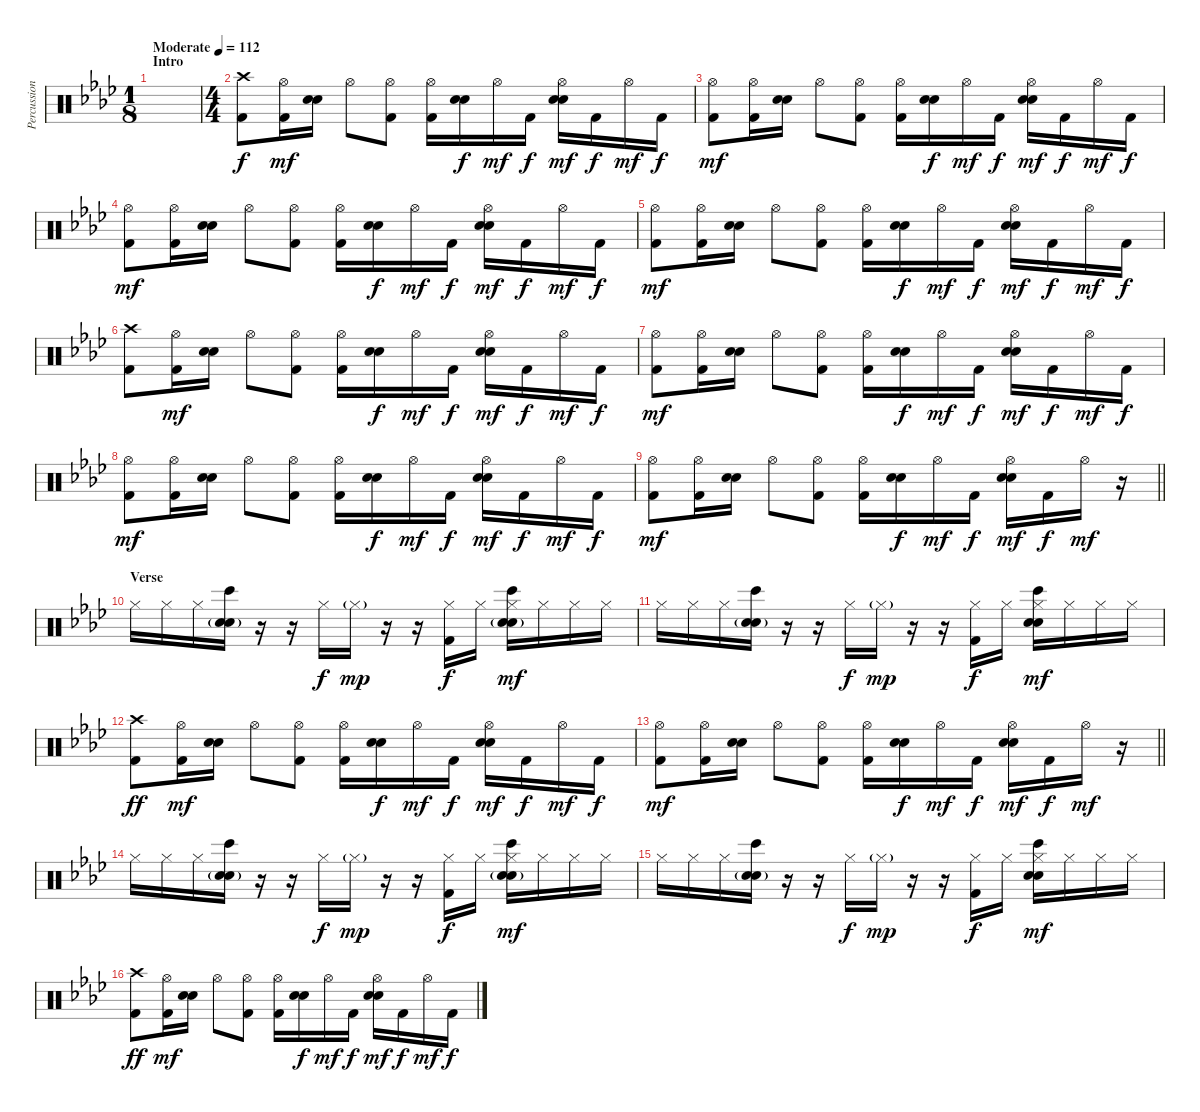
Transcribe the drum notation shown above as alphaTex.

\track ("Percussion" "Percussion") {instrument percussion}
\staff {score}
\articulation defaults
\ts (1 8)
\section ("" "Intro")
\tempo (112 "Moderate")
\clef neutral
\ks ab
|
\ts (4 4)
("Crash high (hit)" "Kick (hit) 2").8 ("Hi-Hat (open)" "Kick (hit) 2").16{dy mf} ("Electric Snare (hit)" "Snare (hit) 2").16 "Hi-Hat (open)".8 ("Hi-Hat (open)" "Kick (hit) 2").8 ("Hi-Hat (open)" "Kick (hit) 2").16 ("Electric Snare (hit)" "Snare (hit) 2").16{dy f} "Hi-Hat (open)".16{dy mf} "Kick (hit) 2".16{dy f} ("Hi-Hat (open)" "Electric Snare (hit)" "Snare (hit) 2").16{dy mf} "Kick (hit) 2".16{dy f} "Hi-Hat (open)".16{dy mf} "Kick (hit) 2".16{dy f} |
("Hi-Hat (open)" "Kick (hit) 2").8{dy mf} ("Hi-Hat (open)" "Kick (hit) 2").16 ("Electric Snare (hit)" "Snare (hit) 2").16 "Hi-Hat (open)".8 ("Hi-Hat (open)" "Kick (hit) 2").8 ("Hi-Hat (open)" "Kick (hit) 2").16 ("Electric Snare (hit)" "Snare (hit) 2").16{dy f} "Hi-Hat (open)".16{dy mf} "Kick (hit) 2".16{dy f} ("Hi-Hat (open)" "Electric Snare (hit)" "Snare (hit) 2").16{dy mf} "Kick (hit) 2".16{dy f} "Hi-Hat (open)".16{dy mf} "Kick (hit) 2".16{dy f} |
("Hi-Hat (open)" "Kick (hit) 2").8{dy mf} ("Hi-Hat (open)" "Kick (hit) 2").16 ("Electric Snare (hit)" "Snare (hit) 2").16 "Hi-Hat (open)".8 ("Hi-Hat (open)" "Kick (hit) 2").8 ("Hi-Hat (open)" "Kick (hit) 2").16 ("Electric Snare (hit)" "Snare (hit) 2").16{dy f} "Hi-Hat (open)".16{dy mf} "Kick (hit) 2".16{dy f} ("Hi-Hat (open)" "Electric Snare (hit)" "Snare (hit) 2").16{dy mf} "Kick (hit) 2".16{dy f} "Hi-Hat (open)".16{dy mf} "Kick (hit) 2".16{dy f} |
("Hi-Hat (open)" "Kick (hit) 2").8{dy mf} ("Hi-Hat (open)" "Kick (hit) 2").16 ("Electric Snare (hit)" "Snare (hit) 2").16 "Hi-Hat (open)".8 ("Hi-Hat (open)" "Kick (hit) 2").8 ("Hi-Hat (open)" "Kick (hit) 2").16 ("Electric Snare (hit)" "Snare (hit) 2").16{dy f} "Hi-Hat (open)".16{dy mf} "Kick (hit) 2".16{dy f} ("Hi-Hat (open)" "Electric Snare (hit)" "Snare (hit) 2").16{dy mf} "Kick (hit) 2".16{dy f} "Hi-Hat (open)".16{dy mf} "Kick (hit) 2".16{dy f} |
("Crash high (hit)" "Kick (hit) 2").8 ("Hi-Hat (open)" "Kick (hit) 2").16{dy mf} ("Electric Snare (hit)" "Snare (hit) 2").16 "Hi-Hat (open)".8 ("Hi-Hat (open)" "Kick (hit) 2").8 ("Hi-Hat (open)" "Kick (hit) 2").16 ("Electric Snare (hit)" "Snare (hit) 2").16{dy f} "Hi-Hat (open)".16{dy mf} "Kick (hit) 2".16{dy f} ("Hi-Hat (open)" "Electric Snare (hit)" "Snare (hit) 2").16{dy mf} "Kick (hit) 2".16{dy f} "Hi-Hat (open)".16{dy mf} "Kick (hit) 2".16{dy f} |
("Hi-Hat (open)" "Kick (hit) 2").8{dy mf} ("Hi-Hat (open)" "Kick (hit) 2").16 ("Electric Snare (hit)" "Snare (hit) 2").16 "Hi-Hat (open)".8 ("Hi-Hat (open)" "Kick (hit) 2").8 ("Hi-Hat (open)" "Kick (hit) 2").16 ("Electric Snare (hit)" "Snare (hit) 2").16{dy f} "Hi-Hat (open)".16{dy mf} "Kick (hit) 2".16{dy f} ("Hi-Hat (open)" "Electric Snare (hit)" "Snare (hit) 2").16{dy mf} "Kick (hit) 2".16{dy f} "Hi-Hat (open)".16{dy mf} "Kick (hit) 2".16{dy f} |
("Hi-Hat (open)" "Kick (hit) 2").8{dy mf} ("Hi-Hat (open)" "Kick (hit) 2").16 ("Electric Snare (hit)" "Snare (hit) 2").16 "Hi-Hat (open)".8 ("Hi-Hat (open)" "Kick (hit) 2").8 ("Hi-Hat (open)" "Kick (hit) 2").16 ("Electric Snare (hit)" "Snare (hit) 2").16{dy f} "Hi-Hat (open)".16{dy mf} "Kick (hit) 2".16{dy f} ("Hi-Hat (open)" "Electric Snare (hit)" "Snare (hit) 2").16{dy mf} "Kick (hit) 2".16{dy f} "Hi-Hat (open)".16{dy mf} "Kick (hit) 2".16{dy f} |
\barLineRight lightlight
("Hi-Hat (open)" "Kick (hit) 2").8{dy mf} ("Hi-Hat (open)" "Kick (hit) 2").16 ("Electric Snare (hit)" "Snare (hit) 2").16 "Hi-Hat (open)".8 ("Hi-Hat (open)" "Kick (hit) 2").8 ("Hi-Hat (open)" "Kick (hit) 2").16 ("Electric Snare (hit)" "Snare (hit) 2").16{dy f} "Hi-Hat (open)".16{dy mf} "Kick (hit) 2".16{dy f} ("Hi-Hat (open)" "Electric Snare (hit)" "Snare (hit) 2").16{dy mf} "Kick (hit) 2".16{dy f} "Hi-Hat (open)".16{dy mf} r.16 |
\section ("" "Verse")
"Hi-Hat (closed)".16 "Hi-Hat (closed)".16 "Hi-Hat (closed)".16 ("Bongo High (hit)" "Electric Snare (hit)"{g} "Snare (hit) 2").16 r.16 r.16 "Hi-Hat (closed)".16{dy f} "Hi-Hat (closed)"{g}.16{dy mp} r.16 r.16 ("Hi-Hat (closed)" "Kick (hit) 2").16{dy f} "Hi-Hat (closed)".16 ("Hi-Hat (closed)" "Bongo High (hit)" "Electric Snare (hit)"{g} "Snare (hit) 2").16{dy mf} "Hi-Hat (closed)".16 "Hi-Hat (closed)".16 "Hi-Hat (closed)".16 |
"Hi-Hat (closed)".16 "Hi-Hat (closed)".16 "Hi-Hat (closed)".16 ("Bongo High (hit)" "Electric Snare (hit)"{g} "Snare (hit) 2").16 r.16 r.16 "Hi-Hat (closed)".16{dy f} "Hi-Hat (closed)"{g}.16{dy mp} r.16 r.16 ("Hi-Hat (closed)" "Kick (hit) 2").16{dy f} "Hi-Hat (closed)".16 ("Hi-Hat (closed)" "Bongo High (hit)" "Electric Snare (hit)" "Snare (hit) 2").16{dy mf} "Hi-Hat (closed)".16 "Hi-Hat (closed)".16 "Hi-Hat (closed)".16 |
("Crash high (hit)" "Kick (hit) 2").8{dy ff} ("Hi-Hat (open)" "Kick (hit) 2").16{dy mf} ("Electric Snare (hit)" "Snare (hit) 2").16 "Hi-Hat (open)".8 ("Hi-Hat (open)" "Kick (hit) 2").8 ("Hi-Hat (open)" "Kick (hit) 2").16 ("Electric Snare (hit)" "Snare (hit) 2").16{dy f} "Hi-Hat (open)".16{dy mf} "Kick (hit) 2".16{dy f} ("Hi-Hat (open)" "Electric Snare (hit)" "Snare (hit) 2").16{dy mf} "Kick (hit) 2".16{dy f} "Hi-Hat (open)".16{dy mf} "Kick (hit) 2".16{dy f} |
\barLineRight lightlight
("Hi-Hat (open)" "Kick (hit) 2").8{dy mf} ("Hi-Hat (open)" "Kick (hit) 2").16 ("Electric Snare (hit)" "Snare (hit) 2").16 "Hi-Hat (open)".8 ("Hi-Hat (open)" "Kick (hit) 2").8 ("Hi-Hat (open)" "Kick (hit) 2").16 ("Electric Snare (hit)" "Snare (hit) 2").16{dy f} "Hi-Hat (open)".16{dy mf} "Kick (hit) 2".16{dy f} ("Hi-Hat (open)" "Electric Snare (hit)" "Snare (hit) 2").16{dy mf} "Kick (hit) 2".16{dy f} "Hi-Hat (open)".16{dy mf} r.16 |
"Hi-Hat (closed)".16 "Hi-Hat (closed)".16 "Hi-Hat (closed)".16 ("Bongo High (hit)" "Electric Snare (hit)"{g} "Snare (hit) 2").16 r.16 r.16 "Hi-Hat (closed)".16{dy f} "Hi-Hat (closed)"{g}.16{dy mp} r.16 r.16 ("Hi-Hat (closed)" "Kick (hit) 2").16{dy f} "Hi-Hat (closed)".16 ("Hi-Hat (closed)" "Bongo High (hit)" "Electric Snare (hit)"{g} "Snare (hit) 2").16{dy mf} "Hi-Hat (closed)".16 "Hi-Hat (closed)".16 "Hi-Hat (closed)".16 |
"Hi-Hat (closed)".16 "Hi-Hat (closed)".16 "Hi-Hat (closed)".16 ("Bongo High (hit)" "Electric Snare (hit)"{g} "Snare (hit) 2").16 r.16 r.16 "Hi-Hat (closed)".16{dy f} "Hi-Hat (closed)"{g}.16{dy mp} r.16 r.16 ("Hi-Hat (closed)" "Kick (hit) 2").16{dy f} "Hi-Hat (closed)".16 ("Hi-Hat (closed)" "Bongo High (hit)" "Electric Snare (hit)" "Snare (hit) 2").16{dy mf} "Hi-Hat (closed)".16 "Hi-Hat (closed)".16 "Hi-Hat (closed)".16 |
("Crash high (hit)" "Kick (hit) 2").8{dy ff} ("Hi-Hat (open)" "Kick (hit) 2").16{dy mf} ("Electric Snare (hit)" "Snare (hit) 2").16 "Hi-Hat (open)".8 ("Hi-Hat (open)" "Kick (hit) 2").8 ("Hi-Hat (open)" "Kick (hit) 2").16 ("Electric Snare (hit)" "Snare (hit) 2").16{dy f} "Hi-Hat (open)".16{dy mf} "Kick (hit) 2".16{dy f} ("Hi-Hat (open)" "Electric Snare (hit)" "Snare (hit) 2").16{dy mf} "Kick (hit) 2".16{dy f} "Hi-Hat (open)".16{dy mf} "Kick (hit) 2".16{dy f}
